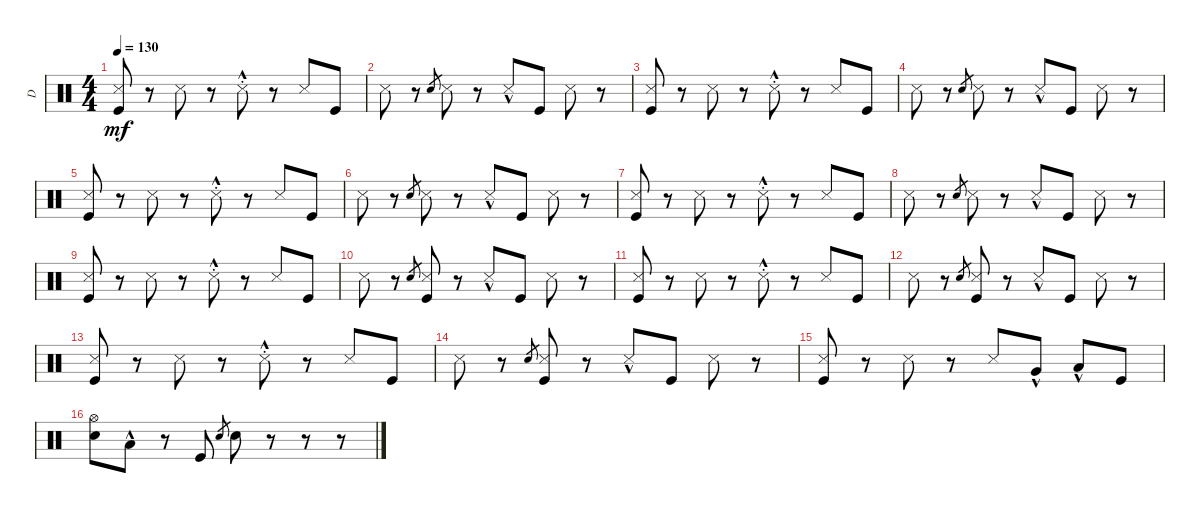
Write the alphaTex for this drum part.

\track ("D" "D") {instrument percussion}
\staff {score}
\articulation defaults
\ts (4 4)
\tempo 130
\clef neutral
\ks c
("Kick (hit)" "Snare (side stick) 3").8{dy mf} r.8 "Snare (side stick) 3".8 r.8 "Snare (side stick) 3"{hac st}.8 r.8 "Snare (side stick) 3".8 "Kick (hit)".8 |
"Snare (side stick) 3".8 r.8 "Snare (hit)".8{gr} "Snare (side stick) 3".8 r.8 "Snare (side stick) 3"{hac}.8 "Kick (hit)".8 "Snare (side stick) 3".8 r.8 |
("Kick (hit)" "Snare (side stick) 3").8 r.8 "Snare (side stick) 3".8 r.8 "Snare (side stick) 3"{hac st}.8 r.8 "Snare (side stick) 3".8 "Kick (hit)".8 |
"Snare (side stick) 3".8 r.8 "Snare (hit)".8{gr} "Snare (side stick) 3".8 r.8 "Snare (side stick) 3"{hac}.8 "Kick (hit)".8 "Snare (side stick) 3".8 r.8 |
("Kick (hit)" "Snare (side stick) 3").8 r.8 "Snare (side stick) 3".8 r.8 "Snare (side stick) 3"{hac st}.8 r.8 "Snare (side stick) 3".8 "Kick (hit)".8 |
"Snare (side stick) 3".8 r.8 "Snare (hit)".8{gr} "Snare (side stick) 3".8 r.8 "Snare (side stick) 3"{hac}.8 "Kick (hit)".8 "Snare (side stick) 3".8 r.8 |
("Kick (hit)" "Snare (side stick) 3").8 r.8 "Snare (side stick) 3".8 r.8 "Snare (side stick) 3"{hac st}.8 r.8 "Snare (side stick) 3".8 "Kick (hit)".8 |
"Snare (side stick) 3".8 r.8 "Snare (hit)".8{gr} "Snare (side stick) 3".8 r.8 "Snare (side stick) 3"{hac}.8 "Kick (hit)".8 "Snare (side stick) 3".8 r.8 |
("Kick (hit)" "Snare (side stick) 3").8 r.8 "Snare (side stick) 3".8 r.8 "Snare (side stick) 3"{hac st}.8 r.8 "Snare (side stick) 3".8 "Kick (hit)".8 |
"Snare (side stick) 3".8 r.8 "Snare (hit)".8{gr} ("Snare (side stick) 3" "Kick (hit)").8 r.8 "Snare (side stick) 3"{hac}.8 "Kick (hit)".8 "Snare (side stick) 3".8 r.8 |
("Kick (hit)" "Snare (side stick) 3").8 r.8 "Snare (side stick) 3".8 r.8 "Snare (side stick) 3"{hac st}.8 r.8 "Snare (side stick) 3".8 "Kick (hit)".8 |
"Snare (side stick) 3".8 r.8 "Snare (hit)".8{gr} ("Snare (side stick) 3" "Kick (hit)").8 r.8 "Snare (side stick) 3"{hac}.8 "Kick (hit)".8 "Snare (side stick) 3".8 r.8 |
("Kick (hit)" "Snare (side stick) 3").8 r.8 "Snare (side stick) 3".8 r.8 "Snare (side stick) 3"{hac st}.8 r.8 "Snare (side stick) 3".8 "Kick (hit)".8 |
"Snare (side stick) 3".8 r.8 "Snare (hit)".8{gr} ("Snare (side stick) 3" "Kick (hit)").8 r.8 "Snare (side stick) 3"{hac}.8 "Kick (hit)".8 "Snare (side stick) 3".8 r.8 |
("Kick (hit)" "Snare (side stick) 3").8 r.8 "Snare (side stick) 3".8 r.8 "Snare (side stick) 3".8 "Very Low Tom (hit)"{hac}.8 "Low Floor Tom (hit)"{hac}.8 "Kick (hit)".8 |
("Snare (hit) 2" "Hi-Hat (open)").8 "Low Floor Tom (hit)"{hac}.8 r.8 "Kick (hit)".8 "Snare (hit)".8{gr} "Snare (hit) 2".8 r.8 r.8 r.8
